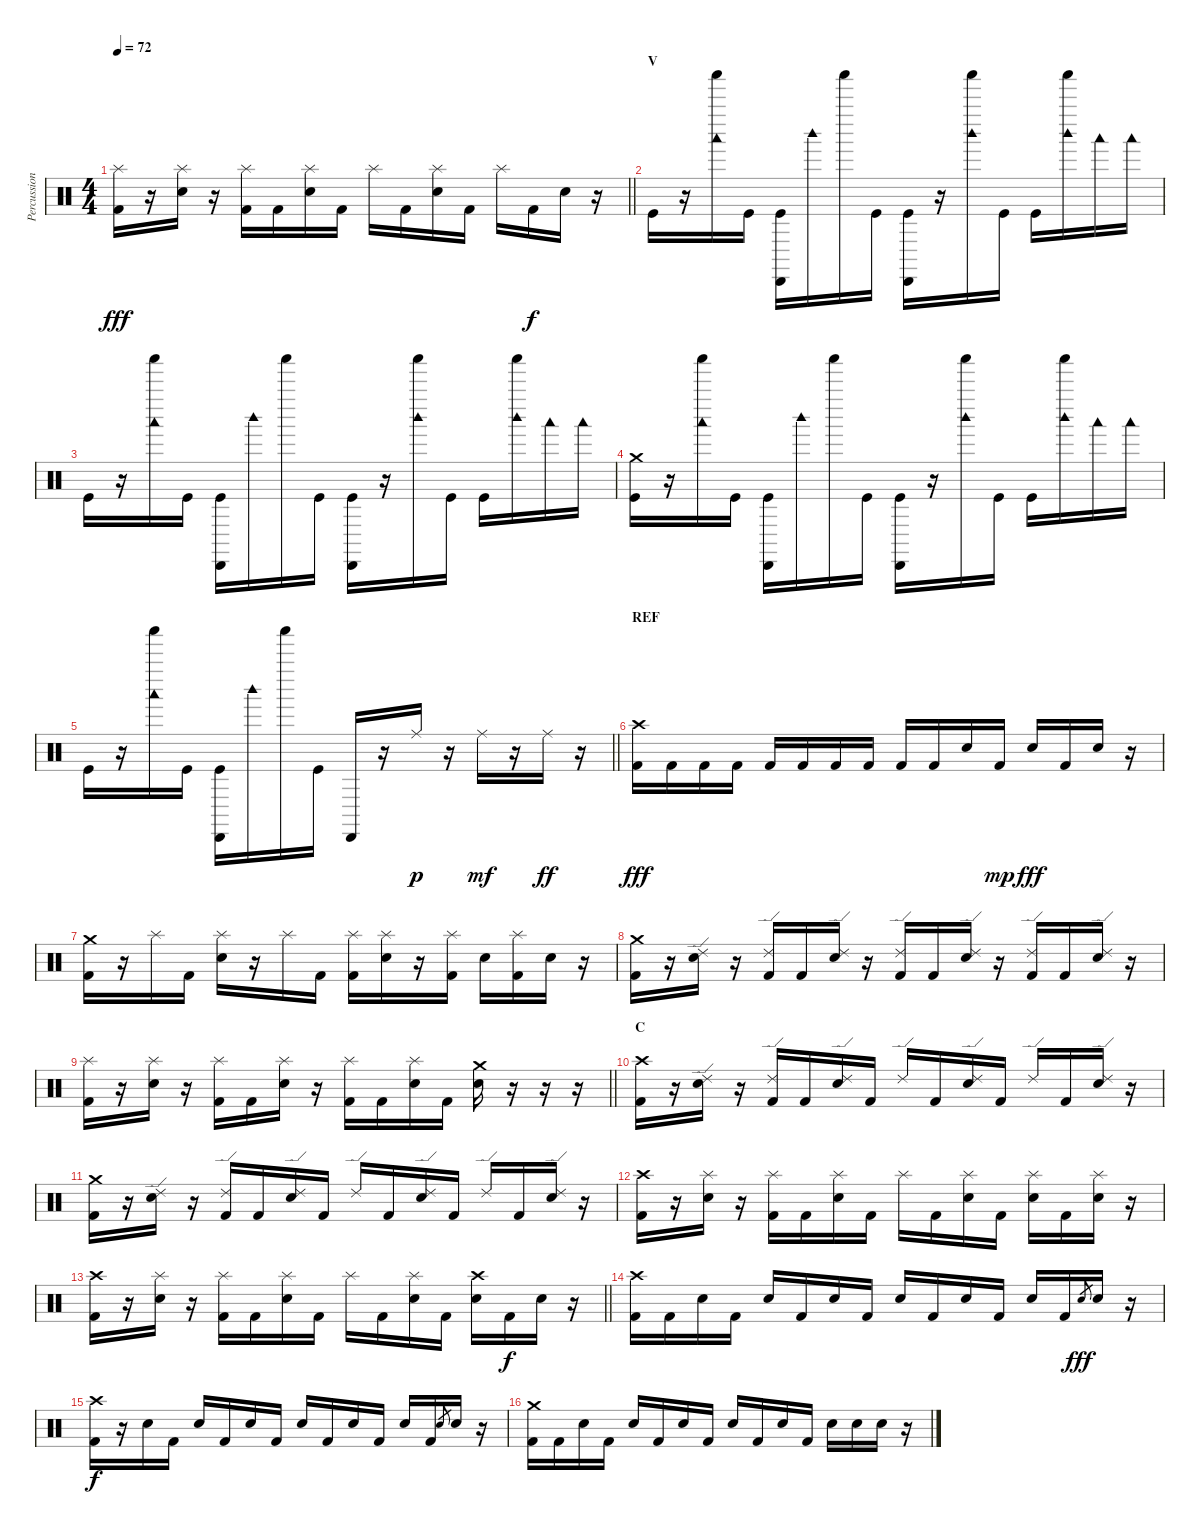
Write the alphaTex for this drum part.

\track ("Percussion" "Percussion") {instrument percussion}
\staff {score}
\articulation defaults
\ts (4 4)
\tempo 72
\clef neutral
\barLineRight lightlight
\ks c
("Splash (hit)" "Kick (hit) 2").16{dy fff} r.16 ("Splash (hit)" "Snare (hit) 2").16 r.16 ("Splash (hit)" "Kick (hit) 2").16 "Kick (hit) 2".16 ("Splash (hit)" "Snare (hit) 2").16 "Kick (hit) 2".16 "Splash (hit)".16 "Kick (hit) 2".16 ("Splash (hit)" "Snare (hit) 2").16 "Kick (hit) 2".16 "Splash (hit)".16 "Kick (hit) 2".16{dy f} "Snare (hit) 2".16 r.16 |
\section ("" "V")
"Kick (hit)".16 r.16 ("Shaker (hit)" "Woodblock low (hit)").16 "Kick (hit)".16 ("Cabasa (hit)" "Kick (hit)").16 "Woodblock high (hit)".16 "Shaker (hit)".16 "Kick (hit)".16 ("Cabasa (hit)" "Kick (hit)").16 r.16 ("Shaker (hit)" "Woodblock high (hit)").16 "Kick (hit)".16 "Kick (hit)".16 ("Shaker (hit)" "Woodblock high (hit)").16 "Woodblock low (hit)".16 "Woodblock low (hit)".16 |
"Kick (hit)".16 r.16 ("Shaker (hit)" "Woodblock low (hit)").16 "Kick (hit)".16 ("Cabasa (hit)" "Kick (hit)").16 "Woodblock high (hit)".16 "Shaker (hit)".16 "Kick (hit)".16 ("Cabasa (hit)" "Kick (hit)").16 r.16 ("Shaker (hit)" "Woodblock high (hit)").16 "Kick (hit)".16 "Kick (hit)".16 ("Shaker (hit)" "Woodblock high (hit)").16 "Woodblock low (hit)".16 "Woodblock low (hit)".16 |
("Crash medium (hit)" "Kick (hit)").16 r.16 ("Shaker (hit)" "Woodblock low (hit)").16 "Kick (hit)".16 ("Cabasa (hit)" "Kick (hit)").16 "Woodblock high (hit)".16 "Shaker (hit)".16 "Kick (hit)".16 ("Cabasa (hit)" "Kick (hit)").16 r.16 ("Shaker (hit)" "Woodblock high (hit)").16 "Kick (hit)".16 "Kick (hit)".16 ("Shaker (hit)" "Woodblock high (hit)").16 "Woodblock low (hit)".16 "Woodblock low (hit)".16 |
\barLineRight lightlight "Kick (hit)".16
r.16 ("Shaker (hit)" "Woodblock low (hit)").16 "Kick (hit)".16 ("Cabasa (hit)" "Kick (hit)").16 "Woodblock high (hit)".16 "Shaker (hit)".16 "Kick (hit)".16 "Cabasa (hit)".16 r.16 "Ride (middle)".16{dy p} r.16 "Ride (middle)".16{dy mf} r.16 "Ride (middle)".16{dy ff} r.16 |
\section ("" "REF")
("Crash high (hit)" "Kick (hit) 2").16{dy fff} "Kick (hit) 2".16 "Kick (hit) 2".16 "Kick (hit) 2".16 "Kick (hit) 2".16 "Kick (hit) 2".16 "Kick (hit) 2".16 "Kick (hit) 2".16 "Kick (hit) 2".16 "Kick (hit) 2".16 "Snare (hit) 2".16 "Kick (hit) 2".16{dy mp} "Snare (hit) 2".16{dy fff} "Kick (hit) 2".16 "Snare (hit) 2".16 r.16 |
("Crash medium (hit)" "Kick (hit) 2").16 r.16 "Splash (hit)".16 "Kick (hit) 2".16 ("Splash (hit)" "Snare (hit) 2").16 r.16 "Splash (hit)".16 "Kick (hit) 2".16 ("Splash (hit)" "Kick (hit) 2").16 ("Splash (hit)" "Snare (hit) 2").16 r.16 ("Splash (hit)" "Kick (hit) 2").16 "Snare (hit) 2".16 ("Splash (hit)" "Kick (hit) 2").16 "Snare (hit) 2".16 r.16 |
("Crash medium (hit)" "Kick (hit) 2").16 r.16 ("Ride (edge) 2" "Snare (hit) 2").16 r.16 ("Ride (edge) 2" "Kick (hit) 2").16 "Kick (hit) 2".16 ("Ride (edge) 2" "Snare (hit) 2").16 r.16 ("Ride (edge) 2" "Kick (hit) 2").16 "Kick (hit) 2".16 ("Ride (edge) 2" "Snare (hit) 2").16 r.16 ("Ride (edge) 2" "Kick (hit) 2").16 "Kick (hit) 2".16 ("Ride (edge) 2" "Snare (hit) 2").16 r.16 |
\barLineRight lightlight
("Splash (hit)" "Kick (hit) 2").16 r.16 ("Splash (hit)" "Snare (hit) 2").16 r.16 ("Splash (hit)" "Kick (hit) 2").16 "Kick (hit) 2".16 ("Splash (hit)" "Snare (hit) 2").16 r.16 ("Splash (hit)" "Kick (hit) 2").16 "Kick (hit) 2".16 ("Splash (hit)" "Snare (hit) 2").16 "Kick (hit) 2".16 ("Crash medium (hit)" "Snare (hit) 2").16 r.16 r.16 r.16 |
\section ("" "C")
("Crash high (hit)" "Kick (hit) 2").16 r.16 ("Ride (edge) 2" "Snare (hit) 2").16 r.16 ("Ride (edge) 2" "Kick (hit) 2").16 "Kick (hit) 2".16 ("Ride (edge) 2" "Snare (hit) 2").16 "Kick (hit) 2".16 "Ride (edge) 2".16 "Kick (hit) 2".16 ("Ride (edge) 2" "Snare (hit) 2").16 "Kick (hit) 2".16 "Ride (edge) 2".16 "Kick (hit) 2".16 ("Ride (edge) 2" "Snare (hit) 2").16 r.16 |
("Crash medium (hit)" "Kick (hit) 2").16 r.16 ("Ride (edge) 2" "Snare (hit) 2").16 r.16 ("Ride (edge) 2" "Kick (hit) 2").16 "Kick (hit) 2".16 ("Ride (edge) 2" "Snare (hit) 2").16 "Kick (hit) 2".16 "Ride (edge) 2".16 "Kick (hit) 2".16 ("Ride (edge) 2" "Snare (hit) 2").16 "Kick (hit) 2".16 "Ride (edge) 2".16 "Kick (hit) 2".16 ("Ride (edge) 2" "Snare (hit) 2").16 r.16 |
("Crash high (hit)" "Kick (hit) 2").16 r.16 ("Splash (hit)" "Snare (hit) 2").16 r.16 ("Splash (hit)" "Kick (hit) 2").16 "Kick (hit) 2".16 ("Splash (hit)" "Snare (hit) 2").16 "Kick (hit) 2".16 "Splash (hit)".16 "Kick (hit) 2".16 ("Splash (hit)" "Snare (hit) 2").16 "Kick (hit) 2".16 ("Splash (hit)" "Snare (hit) 2").16 "Kick (hit) 2".16 ("Splash (hit)" "Snare (hit) 2").16 r.16 |
\barLineRight lightlight
("Crash high (hit)" "Kick (hit) 2").16 r.16 ("Splash (hit)" "Snare (hit) 2").16 r.16 ("Splash (hit)" "Kick (hit) 2").16 "Kick (hit) 2".16 ("Splash (hit)" "Snare (hit) 2").16 "Kick (hit) 2".16 "Splash (hit)".16 "Kick (hit) 2".16 ("Splash (hit)" "Snare (hit) 2").16 "Kick (hit) 2".16 ("Crash high (hit)" "Snare (hit) 2").16 "Kick (hit) 2".16{dy f} "Snare (hit) 2".16 r.16 |
("Crash high (hit)" "Kick (hit) 2").16 "Kick (hit) 2".16 "Snare (hit) 2".16 "Kick (hit) 2".16 "Snare (hit) 2".16 "Kick (hit) 2".16 "Snare (hit) 2".16 "Kick (hit) 2".16 "Snare (hit) 2".16 "Kick (hit) 2".16 "Snare (hit) 2".16 "Kick (hit) 2".16 "Snare (hit) 2".16 "Kick (hit) 2".16 "Snare (hit) 2".8{gr dy fff} "Snare (hit) 2".16 r.16 |
("Crash high (hit)" "Kick (hit) 2").16{dy f} r.16 "Snare (hit) 2".16 "Kick (hit) 2".16 "Snare (hit) 2".16 "Kick (hit) 2".16 "Snare (hit) 2".16 "Kick (hit) 2".16 "Snare (hit) 2".16 "Kick (hit) 2".16 "Snare (hit) 2".16 "Kick (hit) 2".16 "Snare (hit) 2".16 "Kick (hit) 2".16 "Snare (hit) 2".8{gr} "Snare (hit) 2".16 r.16 |
("Crash medium (hit)" "Kick (hit) 2").16 "Kick (hit) 2".16 "Snare (hit) 2".16 "Kick (hit) 2".16 "Snare (hit) 2".16 "Kick (hit) 2".16 "Snare (hit) 2".16 "Kick (hit) 2".16 "Snare (hit) 2".16 "Kick (hit) 2".16 "Snare (hit) 2".16 "Kick (hit) 2".16 "Snare (hit) 2".16 "Snare (hit) 2".16 "Snare (hit) 2".16 r.16
